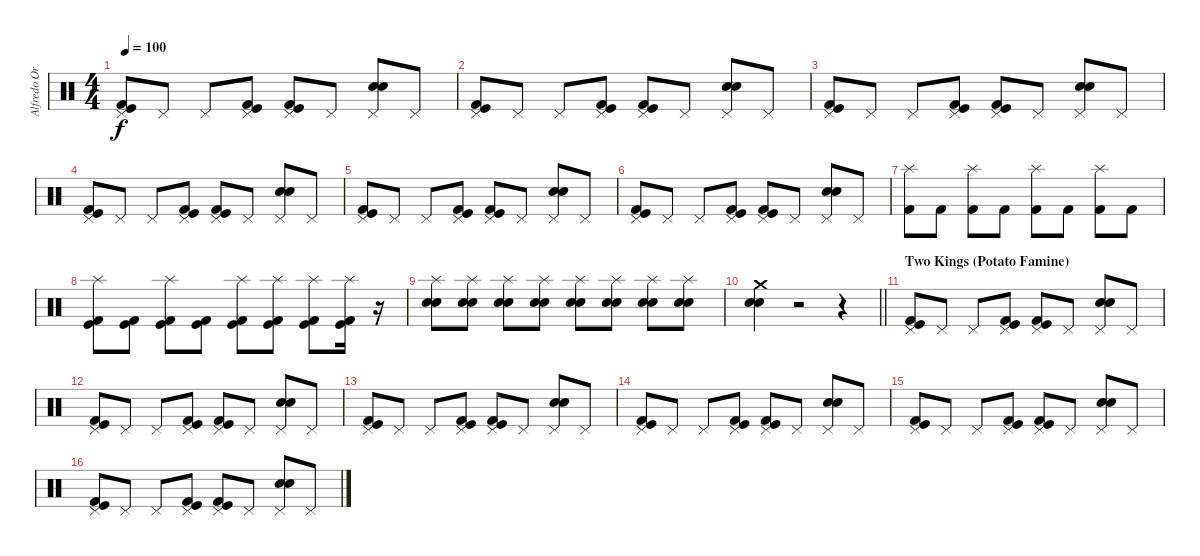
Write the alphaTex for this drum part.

\track ("Alfredo Ortiz (Drums)" "Alfredo Or") {instrument percussion}
\staff {score}
\articulation defaults
\ts (4 4)
\tempo 100
\clef neutral
\ks c
("Kick (hit) 2" "Kick (hit)" "Pedal Hi-Hat (hit)").8{dy f} "Pedal Hi-Hat (hit)".8 "Pedal Hi-Hat (hit)".8 ("Kick (hit) 2" "Kick (hit)" "Pedal Hi-Hat (hit)").8 ("Kick (hit) 2" "Kick (hit)" "Pedal Hi-Hat (hit)").8 "Pedal Hi-Hat (hit)".8 ("Snare (hit) 2" "Electric Snare (hit)" "Pedal Hi-Hat (hit)").8 "Pedal Hi-Hat (hit)".8 |
("Kick (hit) 2" "Kick (hit)" "Pedal Hi-Hat (hit)").8 "Pedal Hi-Hat (hit)".8 "Pedal Hi-Hat (hit)".8 ("Kick (hit) 2" "Kick (hit)" "Pedal Hi-Hat (hit)").8 ("Kick (hit) 2" "Kick (hit)" "Pedal Hi-Hat (hit)").8 "Pedal Hi-Hat (hit)".8 ("Snare (hit) 2" "Electric Snare (hit)" "Pedal Hi-Hat (hit)").8 "Pedal Hi-Hat (hit)".8 |
("Kick (hit) 2" "Kick (hit)" "Pedal Hi-Hat (hit)").8 "Pedal Hi-Hat (hit)".8 "Pedal Hi-Hat (hit)".8 ("Kick (hit) 2" "Kick (hit)" "Pedal Hi-Hat (hit)").8 ("Kick (hit) 2" "Kick (hit)" "Pedal Hi-Hat (hit)").8 "Pedal Hi-Hat (hit)".8 ("Snare (hit) 2" "Electric Snare (hit)" "Pedal Hi-Hat (hit)").8 "Pedal Hi-Hat (hit)".8 |
("Kick (hit) 2" "Kick (hit)" "Pedal Hi-Hat (hit)").8 "Pedal Hi-Hat (hit)".8 "Pedal Hi-Hat (hit)".8 ("Kick (hit) 2" "Kick (hit)" "Pedal Hi-Hat (hit)").8 ("Kick (hit) 2" "Kick (hit)" "Pedal Hi-Hat (hit)").8 "Pedal Hi-Hat (hit)".8 ("Snare (hit) 2" "Electric Snare (hit)" "Pedal Hi-Hat (hit)").8 "Pedal Hi-Hat (hit)".8 |
("Kick (hit) 2" "Kick (hit)" "Pedal Hi-Hat (hit)").8 "Pedal Hi-Hat (hit)".8 "Pedal Hi-Hat (hit)".8 ("Kick (hit) 2" "Kick (hit)" "Pedal Hi-Hat (hit)").8 ("Kick (hit) 2" "Kick (hit)" "Pedal Hi-Hat (hit)").8 "Pedal Hi-Hat (hit)".8 ("Snare (hit) 2" "Electric Snare (hit)" "Pedal Hi-Hat (hit)").8 "Pedal Hi-Hat (hit)".8 |
("Kick (hit) 2" "Kick (hit)" "Pedal Hi-Hat (hit)").8 "Pedal Hi-Hat (hit)".8 "Pedal Hi-Hat (hit)".8 ("Kick (hit) 2" "Kick (hit)" "Pedal Hi-Hat (hit)").8 ("Kick (hit) 2" "Kick (hit)" "Pedal Hi-Hat (hit)").8 "Pedal Hi-Hat (hit)".8 ("Snare (hit) 2" "Electric Snare (hit)" "Pedal Hi-Hat (hit)").8 "Pedal Hi-Hat (hit)".8 |
("Kick (hit) 2" "Splash (hit)").8 "Kick (hit) 2".8 ("Kick (hit) 2" "Splash (hit)").8 "Kick (hit) 2".8 ("Kick (hit) 2" "Splash (hit)").8 "Kick (hit) 2".8 ("Kick (hit) 2" "Splash (hit)").8 "Kick (hit) 2".8 |
("Kick (hit) 2" "Kick (hit)" "Splash (hit)").8 ("Kick (hit) 2" "Kick (hit)").8 ("Kick (hit) 2" "Kick (hit)" "Splash (hit)").8 ("Kick (hit) 2" "Kick (hit)").8 ("Kick (hit) 2" "Kick (hit)" "Splash (hit)").8 ("Kick (hit) 2" "Kick (hit)" "Splash (hit)").8 ("Kick (hit) 2" "Kick (hit)" "Splash (hit)").8 ("Kick (hit) 2" "Kick (hit)" "Splash (hit)").16 r.16{volume 8} |
("Snare (hit) 2" "Electric Snare (hit)" "Splash (hit)").8{volume 11} ("Snare (hit) 2" "Electric Snare (hit)" "Splash (hit)").8 ("Snare (hit) 2" "Electric Snare (hit)" "Splash (hit)").8 ("Snare (hit) 2" "Electric Snare (hit)" "Splash (hit)").8 ("Snare (hit) 2" "Electric Snare (hit)" "Splash (hit)").8 ("Snare (hit) 2" "Electric Snare (hit)" "Splash (hit)").8 ("Snare (hit) 2" "Electric Snare (hit)" "Splash (hit)").8 ("Snare (hit) 2" "Electric Snare (hit)" "Splash (hit)").8 |
\barLineRight lightlight
("Snare (hit) 2" "Electric Snare (hit)" "Crash medium (hit)").4 r.2 r.4 |
\section ("" "Two Kings (Potato Famine)")
("Kick (hit) 2" "Kick (hit)" "Pedal Hi-Hat (hit)").8 "Pedal Hi-Hat (hit)".8 "Pedal Hi-Hat (hit)".8 ("Kick (hit) 2" "Kick (hit)" "Pedal Hi-Hat (hit)").8 ("Kick (hit) 2" "Kick (hit)" "Pedal Hi-Hat (hit)").8 "Pedal Hi-Hat (hit)".8 ("Snare (hit) 2" "Electric Snare (hit)" "Pedal Hi-Hat (hit)").8 "Pedal Hi-Hat (hit)".8 |
("Kick (hit) 2" "Kick (hit)" "Pedal Hi-Hat (hit)").8 "Pedal Hi-Hat (hit)".8 "Pedal Hi-Hat (hit)".8 ("Kick (hit) 2" "Kick (hit)" "Pedal Hi-Hat (hit)").8 ("Kick (hit) 2" "Kick (hit)" "Pedal Hi-Hat (hit)").8 "Pedal Hi-Hat (hit)".8 ("Snare (hit) 2" "Electric Snare (hit)" "Pedal Hi-Hat (hit)").8 "Pedal Hi-Hat (hit)".8 |
("Kick (hit) 2" "Kick (hit)" "Pedal Hi-Hat (hit)").8 "Pedal Hi-Hat (hit)".8 "Pedal Hi-Hat (hit)".8 ("Kick (hit) 2" "Kick (hit)" "Pedal Hi-Hat (hit)").8 ("Kick (hit) 2" "Kick (hit)" "Pedal Hi-Hat (hit)").8 "Pedal Hi-Hat (hit)".8 ("Snare (hit) 2" "Electric Snare (hit)" "Pedal Hi-Hat (hit)").8 "Pedal Hi-Hat (hit)".8 |
("Kick (hit) 2" "Kick (hit)" "Pedal Hi-Hat (hit)").8 "Pedal Hi-Hat (hit)".8 "Pedal Hi-Hat (hit)".8 ("Kick (hit) 2" "Kick (hit)" "Pedal Hi-Hat (hit)").8 ("Kick (hit) 2" "Kick (hit)" "Pedal Hi-Hat (hit)").8 "Pedal Hi-Hat (hit)".8 ("Snare (hit) 2" "Electric Snare (hit)" "Pedal Hi-Hat (hit)").8 "Pedal Hi-Hat (hit)".8 |
("Kick (hit) 2" "Kick (hit)" "Pedal Hi-Hat (hit)").8 "Pedal Hi-Hat (hit)".8 "Pedal Hi-Hat (hit)".8 ("Kick (hit) 2" "Kick (hit)" "Pedal Hi-Hat (hit)").8 ("Kick (hit) 2" "Kick (hit)" "Pedal Hi-Hat (hit)").8 "Pedal Hi-Hat (hit)".8 ("Snare (hit) 2" "Electric Snare (hit)" "Pedal Hi-Hat (hit)").8 "Pedal Hi-Hat (hit)".8 |
("Kick (hit) 2" "Kick (hit)" "Pedal Hi-Hat (hit)").8 "Pedal Hi-Hat (hit)".8 "Pedal Hi-Hat (hit)".8 ("Kick (hit) 2" "Kick (hit)" "Pedal Hi-Hat (hit)").8 ("Kick (hit) 2" "Kick (hit)" "Pedal Hi-Hat (hit)").8 "Pedal Hi-Hat (hit)".8 ("Snare (hit) 2" "Electric Snare (hit)" "Pedal Hi-Hat (hit)").8 "Pedal Hi-Hat (hit)".8
